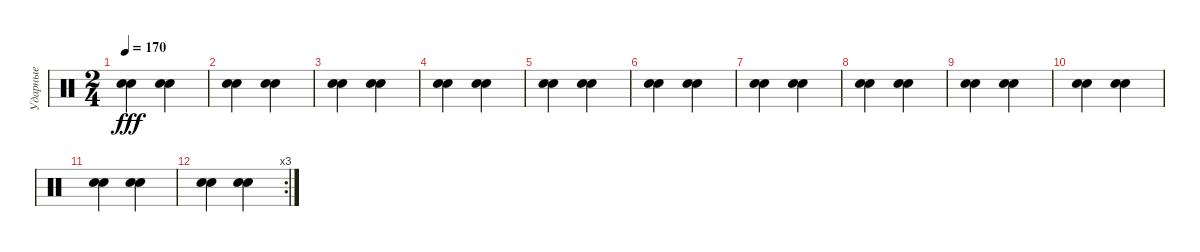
\track ("Ударные" "Ударные") {instrument percussion}
\staff {score}
\articulation defaults
\ts (2 4)
\tempo 170
\clef neutral
\ks c
("Snare (hit) 2" "Electric Snare (hit)").4{dy fff} ("Snare (hit) 2" "Electric Snare (hit)").4 |
("Snare (hit) 2" "Electric Snare (hit)").4 ("Snare (hit) 2" "Electric Snare (hit)").4 |
("Snare (hit) 2" "Electric Snare (hit)").4 ("Snare (hit) 2" "Electric Snare (hit)").4 |
("Snare (hit) 2" "Electric Snare (hit)").4 ("Snare (hit) 2" "Electric Snare (hit)").4 |
("Snare (hit) 2" "Electric Snare (hit)").4 ("Snare (hit) 2" "Electric Snare (hit)").4 |
("Snare (hit) 2" "Electric Snare (hit)").4 ("Snare (hit) 2" "Electric Snare (hit)").4 |
("Snare (hit) 2" "Electric Snare (hit)").4 ("Snare (hit) 2" "Electric Snare (hit)").4 |
("Snare (hit) 2" "Electric Snare (hit)").4 ("Snare (hit) 2" "Electric Snare (hit)").4 |
("Snare (hit) 2" "Electric Snare (hit)").4 ("Snare (hit) 2" "Electric Snare (hit)").4 |
("Snare (hit) 2" "Electric Snare (hit)").4 ("Snare (hit) 2" "Electric Snare (hit)").4 |
("Snare (hit) 2" "Electric Snare (hit)").4 ("Snare (hit) 2" "Electric Snare (hit)").4 |
\rc 3
("Snare (hit) 2" "Electric Snare (hit)").4 ("Snare (hit) 2" "Electric Snare (hit)").4
